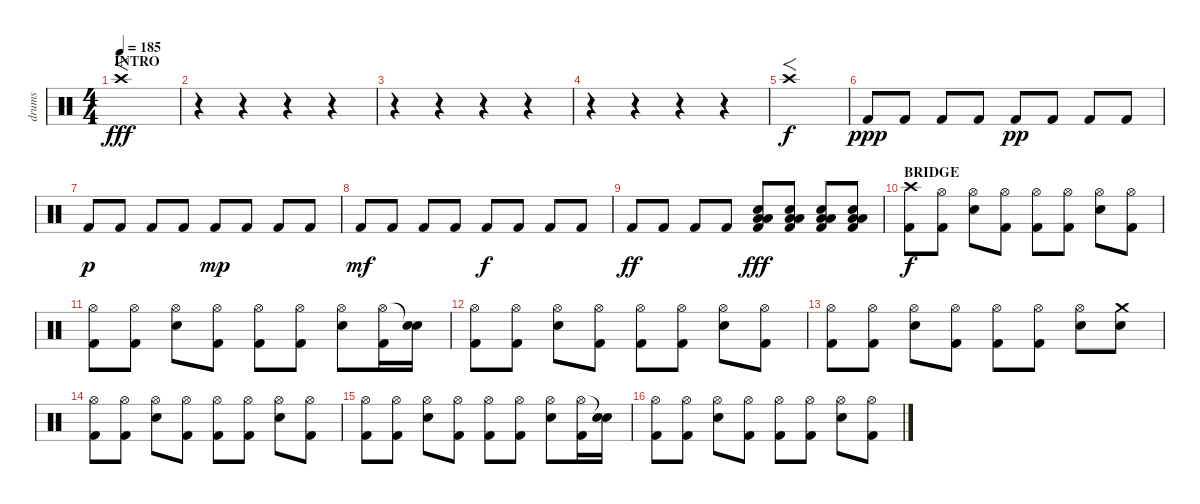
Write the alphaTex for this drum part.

\track ("drums" "drums") {instrument percussion}
\staff {score}
\articulation defaults
\ts (4 4)
\section ("" "INTRO")
\tempo 185
\clef neutral
\ks c "Crash high (hit)".1{f dy fff}
|
r.4 r.4 r.4 r.4 |
r.4 r.4 r.4 r.4 |
r.4 r.4 r.4 r.4 |
"Crash high (hit)".1{f dy f} |
"Kick (hit) 2".8{dy ppp} "Kick (hit) 2".8 "Kick (hit) 2".8 "Kick (hit) 2".8 "Kick (hit) 2".8{dy pp} "Kick (hit) 2".8 "Kick (hit) 2".8 "Kick (hit) 2".8 |
"Kick (hit) 2".8{dy p} "Kick (hit) 2".8 "Kick (hit) 2".8 "Kick (hit) 2".8 "Kick (hit) 2".8{dy mp} "Kick (hit) 2".8 "Kick (hit) 2".8 "Kick (hit) 2".8 |
"Kick (hit) 2".8{dy mf} "Kick (hit) 2".8 "Kick (hit) 2".8 "Kick (hit) 2".8 "Kick (hit) 2".8{dy f} "Kick (hit) 2".8 "Kick (hit) 2".8 "Kick (hit) 2".8 |
"Kick (hit) 2".8{dy ff} "Kick (hit) 2".8 "Kick (hit) 2".8 "Kick (hit) 2".8 ("Low Floor Tom (hit)" "Low Floor Tom (hit)" "Electric Snare (hit)" "Kick (hit) 2").8{dy fff} ("Low Floor Tom (hit)" "Low Floor Tom (hit)" "Electric Snare (hit)" "Kick (hit) 2").8 ("Low Floor Tom (hit)" "Low Floor Tom (hit)" "Electric Snare (hit)" "Kick (hit) 2").8 ("Low Floor Tom (hit)" "Low Floor Tom (hit)" "Electric Snare (hit)" "Kick (hit) 2").8 |
\section ("" "BRIDGE")
("Crash high (hit)" "Kick (hit) 2").8{dy f} ("Hi-Hat (open)" "Kick (hit) 2").8 ("Hi-Hat (open)" "Electric Snare (hit)").8 ("Hi-Hat (open)" "Kick (hit) 2").8 ("Hi-Hat (open)" "Kick (hit) 2").8 ("Hi-Hat (open)" "Kick (hit) 2").8 ("Hi-Hat (open)" "Electric Snare (hit)").8 ("Hi-Hat (open)" "Kick (hit) 2").8 |
("Hi-Hat (open)" "Kick (hit) 2").8 ("Hi-Hat (open)" "Kick (hit) 2").8 ("Hi-Hat (open)" "Electric Snare (hit)").8 ("Hi-Hat (open)" "Kick (hit) 2").8 ("Hi-Hat (open)" "Kick (hit) 2").8 ("Hi-Hat (open)" "Kick (hit) 2").8 ("Hi-Hat (open)" "Electric Snare (hit)").8 ("Hi-Hat (open)" "Kick (hit) 2").16 ("Snare (hit)"{t} "Electric Snare (hit)").16 |
("Hi-Hat (open)" "Kick (hit) 2").8 ("Hi-Hat (open)" "Kick (hit) 2").8 ("Hi-Hat (open)" "Electric Snare (hit)").8 ("Hi-Hat (open)" "Kick (hit) 2").8 ("Hi-Hat (open)" "Kick (hit) 2").8 ("Hi-Hat (open)" "Kick (hit) 2").8 ("Hi-Hat (open)" "Electric Snare (hit)").8 ("Hi-Hat (open)" "Kick (hit) 2").8 |
("Hi-Hat (open)" "Kick (hit) 2").8 ("Hi-Hat (open)" "Kick (hit) 2").8 ("Hi-Hat (open)" "Electric Snare (hit)").8 ("Hi-Hat (open)" "Kick (hit) 2").8 ("Hi-Hat (open)" "Kick (hit) 2").8 ("Hi-Hat (open)" "Kick (hit) 2").8 ("Hi-Hat (open)" "Electric Snare (hit)").8 ("Crash medium (hit)" "Electric Snare (hit)").8 |
("Hi-Hat (open)" "Kick (hit) 2").8 ("Hi-Hat (open)" "Kick (hit) 2").8 ("Hi-Hat (open)" "Electric Snare (hit)").8 ("Hi-Hat (open)" "Kick (hit) 2").8 ("Hi-Hat (open)" "Kick (hit) 2").8 ("Hi-Hat (open)" "Kick (hit) 2").8 ("Hi-Hat (open)" "Electric Snare (hit)").8 ("Hi-Hat (open)" "Kick (hit) 2").8 |
("Hi-Hat (open)" "Kick (hit) 2").8 ("Hi-Hat (open)" "Kick (hit) 2").8 ("Hi-Hat (open)" "Electric Snare (hit)").8 ("Hi-Hat (open)" "Kick (hit) 2").8 ("Hi-Hat (open)" "Kick (hit) 2").8 ("Hi-Hat (open)" "Kick (hit) 2").8 ("Hi-Hat (open)" "Electric Snare (hit)").8 ("Hi-Hat (open)" "Kick (hit) 2").16 ("Snare (hit)"{t} "Electric Snare (hit)").16 |
("Hi-Hat (open)" "Kick (hit) 2").8 ("Hi-Hat (open)" "Kick (hit) 2").8 ("Hi-Hat (open)" "Electric Snare (hit)").8 ("Hi-Hat (open)" "Kick (hit) 2").8 ("Hi-Hat (open)" "Kick (hit) 2").8 ("Hi-Hat (open)" "Kick (hit) 2").8 ("Hi-Hat (open)" "Electric Snare (hit)").8 ("Hi-Hat (open)" "Kick (hit) 2").8
